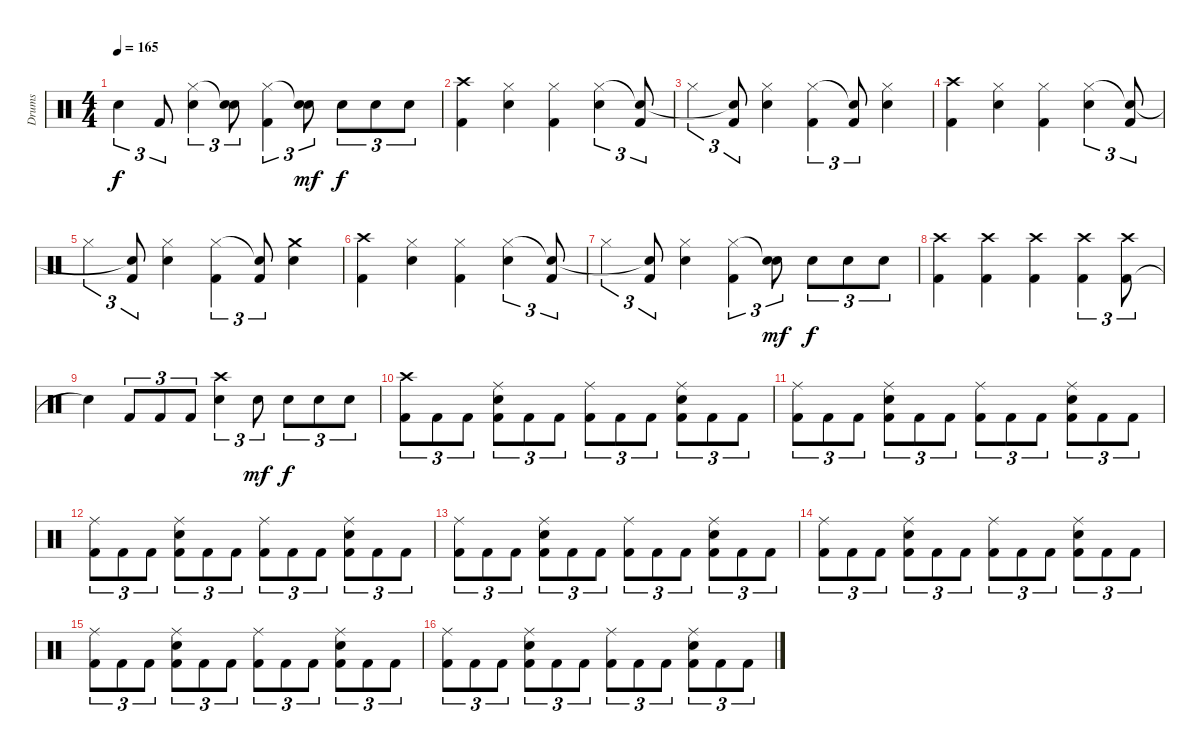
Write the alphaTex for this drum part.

\track ("Drums" "Drums") {instrument percussion}
\staff {score}
\articulation defaults
\ts (4 4)
\tempo 165
\clef neutral
\ks c "Snare (hit)"{t}.4{tu (3 2) dy f} "Kick (hit) 2".8{tu (3 2)}
("Snare (hit) 2" "Hi-Hat (closed)").4{tu (3 2)} ("Snare (hit) 2" "Snare (hit)"{t}).8{tu (3 2)} ("Kick (hit) 2" "Hi-Hat (closed)").4{tu (3 2)} ("Snare (hit) 2" "Snare (hit)"{t}).8{tu (3 2) dy mf} "Snare (hit) 2".8{tu (3 2) dy f} "Snare (hit) 2".8{tu (3 2)} "Snare (hit) 2".8{tu (3 2)} |
("Kick (hit) 2" "Crash high (hit)").4 ("Snare (hit) 2" "Hi-Hat (closed)").4 ("Kick (hit) 2" "Hi-Hat (closed)").4 ("Snare (hit) 2" "Hi-Hat (closed)").4{tu (3 2)} ("Kick (hit) 2" "Snare (hit)"{t}).8{tu (3 2)} |
"Hi-Hat (closed)".4{tu (3 2)} ("Kick (hit) 2" "Snare (hit)"{t}).8{tu (3 2)} ("Snare (hit) 2" "Hi-Hat (closed)").4 ("Kick (hit) 2" "Hi-Hat (closed)").4{tu (3 2)} ("Kick (hit) 2" "Snare (hit)"{t}).8{tu (3 2)} ("Snare (hit) 2" "Hi-Hat (closed)").4 |
("Kick (hit) 2" "Crash high (hit)").4 ("Snare (hit) 2" "Hi-Hat (closed)").4 ("Kick (hit) 2" "Hi-Hat (closed)").4 ("Snare (hit) 2" "Hi-Hat (closed)").4{tu (3 2)} ("Kick (hit) 2" "Snare (hit)"{t}).8{tu (3 2)} |
"Hi-Hat (closed)".4{tu (3 2)} ("Kick (hit) 2" "Snare (hit)"{t}).8{tu (3 2)} ("Snare (hit) 2" "Hi-Hat (closed)").4 ("Kick (hit) 2" "Hi-Hat (closed)").4{tu (3 2)} ("Kick (hit) 2" "Snare (hit)"{t}).8{tu (3 2)} ("Snare (hit) 2" "Crash medium (hit)").4 |
("Kick (hit) 2" "Crash high (hit)").4 ("Snare (hit) 2" "Hi-Hat (closed)").4 ("Kick (hit) 2" "Hi-Hat (closed)").4 ("Snare (hit) 2" "Hi-Hat (closed)").4{tu (3 2)} ("Kick (hit) 2" "Snare (hit)"{t}).8{tu (3 2)} |
"Hi-Hat (closed)".4{tu (3 2)} ("Kick (hit) 2" "Snare (hit)"{t}).8{tu (3 2)} ("Snare (hit) 2" "Hi-Hat (closed)").4 ("Kick (hit) 2" "Hi-Hat (closed)").4{tu (3 2)} ("Snare (hit) 2" "Snare (hit)"{t}).8{tu (3 2) dy mf} "Snare (hit) 2".8{tu (3 2) dy f} "Snare (hit) 2".8{tu (3 2)} "Snare (hit) 2".8{tu (3 2)} |
("Kick (hit) 2" "Crash high (hit)").4 ("Kick (hit) 2" "Crash high (hit)").4 ("Kick (hit) 2" "Crash high (hit)").4 ("Kick (hit) 2" "Crash high (hit)").4{tu (3 2)} ("Kick (hit) 2" "Crash high (hit)").8{tu (3 2)} |
"Snare (hit)"{t}.4 "Kick (hit) 2".8{tu (3 2)} "Kick (hit) 2".8{tu (3 2)} "Kick (hit) 2".8{tu (3 2)} ("Snare (hit) 2" "Crash high (hit)").4{tu (3 2)} "Snare (hit) 2".8{tu (3 2) dy mf} "Snare (hit) 2".8{tu (3 2) dy f} "Snare (hit) 2".8{tu (3 2)} "Snare (hit) 2".8{tu (3 2)} |
("Kick (hit) 2" "Crash high (hit)").8{tu (3 2)} "Kick (hit) 2".8{tu (3 2)} "Kick (hit) 2".8{tu (3 2)} ("Kick (hit) 2" "Snare (hit) 2" "Ride (middle)").8{tu (3 2)} "Kick (hit) 2".8{tu (3 2)} "Kick (hit) 2".8{tu (3 2)} ("Kick (hit) 2" "Ride (middle)").8{tu (3 2)} "Kick (hit) 2".8{tu (3 2)} "Kick (hit) 2".8{tu (3 2)} ("Kick (hit) 2" "Snare (hit) 2" "Ride (middle)").8{tu (3 2)} "Kick (hit) 2".8{tu (3 2)} "Kick (hit) 2".8{tu (3 2)} |
("Kick (hit) 2" "Ride (middle)").8{tu (3 2)} "Kick (hit) 2".8{tu (3 2)} "Kick (hit) 2".8{tu (3 2)} ("Kick (hit) 2" "Snare (hit) 2" "Ride (middle)").8{tu (3 2)} "Kick (hit) 2".8{tu (3 2)} "Kick (hit) 2".8{tu (3 2)} ("Kick (hit) 2" "Ride (middle)").8{tu (3 2)} "Kick (hit) 2".8{tu (3 2)} "Kick (hit) 2".8{tu (3 2)} ("Kick (hit) 2" "Snare (hit) 2" "Ride (middle)").8{tu (3 2)} "Kick (hit) 2".8{tu (3 2)} "Kick (hit) 2".8{tu (3 2)} |
("Kick (hit) 2" "Ride (middle)").8{tu (3 2)} "Kick (hit) 2".8{tu (3 2)} "Kick (hit) 2".8{tu (3 2)} ("Kick (hit) 2" "Snare (hit) 2" "Ride (middle)").8{tu (3 2)} "Kick (hit) 2".8{tu (3 2)} "Kick (hit) 2".8{tu (3 2)} ("Kick (hit) 2" "Ride (middle)").8{tu (3 2)} "Kick (hit) 2".8{tu (3 2)} "Kick (hit) 2".8{tu (3 2)} ("Kick (hit) 2" "Snare (hit) 2" "Ride (middle)").8{tu (3 2)} "Kick (hit) 2".8{tu (3 2)} "Kick (hit) 2".8{tu (3 2)} |
("Kick (hit) 2" "Ride (middle)").8{tu (3 2)} "Kick (hit) 2".8{tu (3 2)} "Kick (hit) 2".8{tu (3 2)} ("Kick (hit) 2" "Snare (hit) 2" "Ride (middle)").8{tu (3 2)} "Kick (hit) 2".8{tu (3 2)} "Kick (hit) 2".8{tu (3 2)} ("Kick (hit) 2" "Ride (middle)").8{tu (3 2)} "Kick (hit) 2".8{tu (3 2)} "Kick (hit) 2".8{tu (3 2)} ("Kick (hit) 2" "Snare (hit) 2" "Ride (middle)").8{tu (3 2)} "Kick (hit) 2".8{tu (3 2)} "Kick (hit) 2".8{tu (3 2)} |
("Kick (hit) 2" "Ride (middle)").8{tu (3 2)} "Kick (hit) 2".8{tu (3 2)} "Kick (hit) 2".8{tu (3 2)} ("Kick (hit) 2" "Snare (hit) 2" "Ride (middle)").8{tu (3 2)} "Kick (hit) 2".8{tu (3 2)} "Kick (hit) 2".8{tu (3 2)} ("Kick (hit) 2" "Ride (middle)").8{tu (3 2)} "Kick (hit) 2".8{tu (3 2)} "Kick (hit) 2".8{tu (3 2)} ("Kick (hit) 2" "Snare (hit) 2" "Ride (middle)").8{tu (3 2)} "Kick (hit) 2".8{tu (3 2)} "Kick (hit) 2".8{tu (3 2)} |
("Kick (hit) 2" "Ride (middle)").8{tu (3 2)} "Kick (hit) 2".8{tu (3 2)} "Kick (hit) 2".8{tu (3 2)} ("Kick (hit) 2" "Snare (hit) 2" "Ride (middle)").8{tu (3 2)} "Kick (hit) 2".8{tu (3 2)} "Kick (hit) 2".8{tu (3 2)} ("Kick (hit) 2" "Ride (middle)").8{tu (3 2)} "Kick (hit) 2".8{tu (3 2)} "Kick (hit) 2".8{tu (3 2)} ("Kick (hit) 2" "Snare (hit) 2" "Ride (middle)").8{tu (3 2)} "Kick (hit) 2".8{tu (3 2)} "Kick (hit) 2".8{tu (3 2)} |
("Kick (hit) 2" "Ride (middle)").8{tu (3 2)} "Kick (hit) 2".8{tu (3 2)} "Kick (hit) 2".8{tu (3 2)} ("Kick (hit) 2" "Snare (hit) 2" "Ride (middle)").8{tu (3 2)} "Kick (hit) 2".8{tu (3 2)} "Kick (hit) 2".8{tu (3 2)} ("Kick (hit) 2" "Ride (middle)").8{tu (3 2)} "Kick (hit) 2".8{tu (3 2)} "Kick (hit) 2".8{tu (3 2)} ("Kick (hit) 2" "Snare (hit) 2" "Ride (middle)").8{tu (3 2)} "Kick (hit) 2".8{tu (3 2)} "Kick (hit) 2".8{tu (3 2)}
